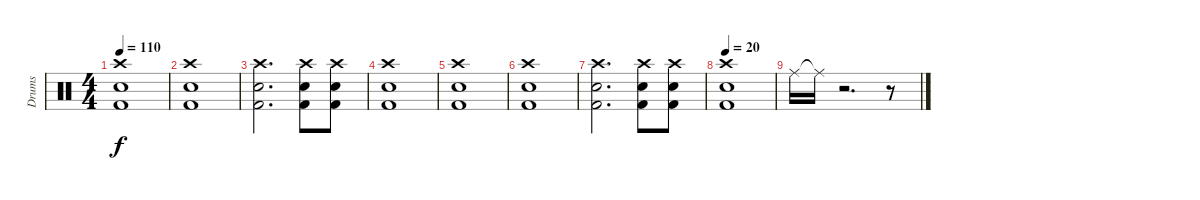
\track ("Drums" "Drums") {instrument percussion}
\staff {score}
\articulation defaults
\ts (4 4)
\tempo 110
\clef neutral
\ks c
("Crash high (hit)" "Kick (hit) 2" "Snare (hit) 2").1{dy f} |
("Crash high (hit)" "Kick (hit) 2" "Snare (hit) 2").1 |
("Crash high (hit)" "Kick (hit) 2" "Snare (hit) 2").2{d} ("Crash high (hit)" "Kick (hit) 2" "Snare (hit) 2").8 ("Crash high (hit)" "Kick (hit) 2" "Snare (hit) 2").8 |
("Crash high (hit)" "Kick (hit) 2" "Snare (hit) 2").1 |
("Crash high (hit)" "Kick (hit) 2" "Snare (hit) 2").1 |
("Crash high (hit)" "Kick (hit) 2" "Snare (hit) 2").1 |
("Crash high (hit)" "Kick (hit) 2" "Snare (hit) 2").2{d} ("Crash high (hit)" "Kick (hit) 2" "Snare (hit) 2").8 ("Crash high (hit)" "Kick (hit) 2" "Snare (hit) 2").8 |
\tempo 20
("Crash high (hit)" "Kick (hit) 2" "Snare (hit) 2").1 |
"Ride (middle)".16 "Ride (middle)"{t}.16 r.2{d} r.8
